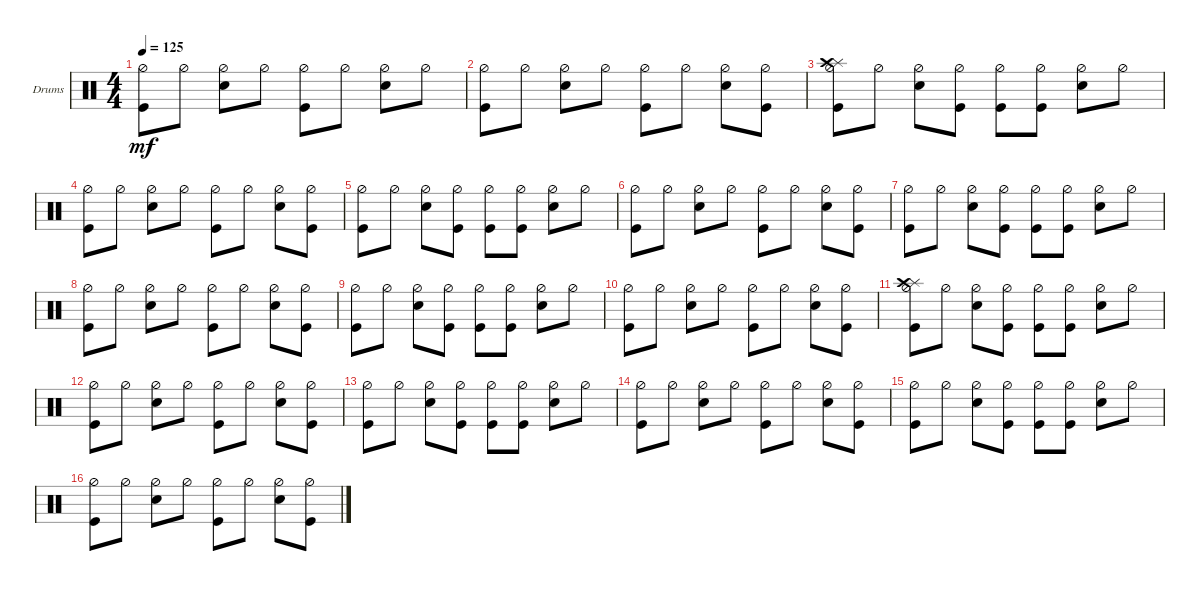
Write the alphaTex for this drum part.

\defaultSystemsLayout 4
\bracketExtendMode groupsimilarinstruments
\firstSystemTrackNameOrientation horizontal
\otherSystemsTrackNameOrientation horizontal
\track ("Drumkit" "Drums") {instrument percussion}
\staff {score}
\articulation defaults
\ts (4 4)
\tempo 125
\clef neutral
\ks c
("Kick (hit)" "Hi-Hat (half)").8{dy mf} "Hi-Hat (half)".8 ("Hi-Hat (half)" "Snare (hit) 2").8 "Hi-Hat (half)".8 ("Kick (hit)" "Hi-Hat (half)").8 "Hi-Hat (half)".8 ("Hi-Hat (half)" "Snare (hit) 2").8 "Hi-Hat (half)".8 |
("Kick (hit)" "Hi-Hat (half)").8 "Hi-Hat (half)".8 ("Hi-Hat (half)" "Snare (hit) 2").8 "Hi-Hat (half)".8 ("Kick (hit)" "Hi-Hat (half)").8 "Hi-Hat (half)".8 ("Hi-Hat (half)" "Snare (hit) 2").8 ("Hi-Hat (half)" "Kick (hit)").8 |
("Kick (hit)" "Hi-Hat (half)" "Splash (hit)" "Crash high (hit)").8 "Hi-Hat (half)".8 ("Hi-Hat (half)" "Snare (hit) 2").8 ("Hi-Hat (half)" "Kick (hit)").8 ("Kick (hit)" "Hi-Hat (half)").8 ("Hi-Hat (half)" "Kick (hit)").8 ("Hi-Hat (half)" "Snare (hit) 2").8 "Hi-Hat (half)".8 |
("Kick (hit)" "Hi-Hat (half)").8 "Hi-Hat (half)".8 ("Hi-Hat (half)" "Snare (hit) 2").8 "Hi-Hat (half)".8 ("Kick (hit)" "Hi-Hat (half)").8 "Hi-Hat (half)".8 ("Hi-Hat (half)" "Snare (hit) 2").8 ("Hi-Hat (half)" "Kick (hit)").8 |
("Kick (hit)" "Hi-Hat (half)").8 "Hi-Hat (half)".8 ("Hi-Hat (half)" "Snare (hit) 2").8 ("Hi-Hat (half)" "Kick (hit)").8 ("Kick (hit)" "Hi-Hat (half)").8 ("Hi-Hat (half)" "Kick (hit)").8 ("Hi-Hat (half)" "Snare (hit) 2").8 "Hi-Hat (half)".8 |
("Kick (hit)" "Hi-Hat (half)").8 "Hi-Hat (half)".8 ("Hi-Hat (half)" "Snare (hit) 2").8 "Hi-Hat (half)".8 ("Kick (hit)" "Hi-Hat (half)").8 "Hi-Hat (half)".8 ("Hi-Hat (half)" "Snare (hit) 2").8 ("Hi-Hat (half)" "Kick (hit)").8 |
("Kick (hit)" "Hi-Hat (half)").8 "Hi-Hat (half)".8 ("Hi-Hat (half)" "Snare (hit) 2").8 ("Hi-Hat (half)" "Kick (hit)").8 ("Kick (hit)" "Hi-Hat (half)").8 ("Hi-Hat (half)" "Kick (hit)").8 ("Hi-Hat (half)" "Snare (hit) 2").8 "Hi-Hat (half)".8 |
("Kick (hit)" "Hi-Hat (half)").8 "Hi-Hat (half)".8 ("Hi-Hat (half)" "Snare (hit) 2").8 "Hi-Hat (half)".8 ("Kick (hit)" "Hi-Hat (half)").8 "Hi-Hat (half)".8 ("Hi-Hat (half)" "Snare (hit) 2").8 ("Hi-Hat (half)" "Kick (hit)").8 |
("Kick (hit)" "Hi-Hat (half)").8 "Hi-Hat (half)".8 ("Hi-Hat (half)" "Snare (hit) 2").8 ("Hi-Hat (half)" "Kick (hit)").8 ("Kick (hit)" "Hi-Hat (half)").8 ("Hi-Hat (half)" "Kick (hit)").8 ("Hi-Hat (half)" "Snare (hit) 2").8 "Hi-Hat (half)".8 |
("Kick (hit)" "Hi-Hat (half)").8 "Hi-Hat (half)".8 ("Hi-Hat (half)" "Snare (hit) 2").8 "Hi-Hat (half)".8 ("Kick (hit)" "Hi-Hat (half)").8 "Hi-Hat (half)".8 ("Hi-Hat (half)" "Snare (hit) 2").8 ("Hi-Hat (half)" "Kick (hit)").8 |
("Kick (hit)" "Hi-Hat (half)" "Splash (hit)" "Crash high (hit)").8 "Hi-Hat (half)".8 ("Hi-Hat (half)" "Snare (hit) 2").8 ("Hi-Hat (half)" "Kick (hit)").8 ("Kick (hit)" "Hi-Hat (half)").8 ("Hi-Hat (half)" "Kick (hit)").8 ("Hi-Hat (half)" "Snare (hit) 2").8 "Hi-Hat (half)".8 |
("Kick (hit)" "Hi-Hat (half)").8 "Hi-Hat (half)".8 ("Hi-Hat (half)" "Snare (hit) 2").8 "Hi-Hat (half)".8 ("Kick (hit)" "Hi-Hat (half)").8 "Hi-Hat (half)".8 ("Hi-Hat (half)" "Snare (hit) 2").8 ("Hi-Hat (half)" "Kick (hit)").8 |
("Kick (hit)" "Hi-Hat (half)").8 "Hi-Hat (half)".8 ("Hi-Hat (half)" "Snare (hit) 2").8 ("Hi-Hat (half)" "Kick (hit)").8 ("Kick (hit)" "Hi-Hat (half)").8 ("Hi-Hat (half)" "Kick (hit)").8 ("Hi-Hat (half)" "Snare (hit) 2").8 "Hi-Hat (half)".8 |
("Kick (hit)" "Hi-Hat (half)").8 "Hi-Hat (half)".8 ("Hi-Hat (half)" "Snare (hit) 2").8 "Hi-Hat (half)".8 ("Kick (hit)" "Hi-Hat (half)").8 "Hi-Hat (half)".8 ("Hi-Hat (half)" "Snare (hit) 2").8 ("Hi-Hat (half)" "Kick (hit)").8 |
("Kick (hit)" "Hi-Hat (half)").8 "Hi-Hat (half)".8 ("Hi-Hat (half)" "Snare (hit) 2").8 ("Hi-Hat (half)" "Kick (hit)").8 ("Kick (hit)" "Hi-Hat (half)").8 ("Hi-Hat (half)" "Kick (hit)").8 ("Hi-Hat (half)" "Snare (hit) 2").8 "Hi-Hat (half)".8 |
("Kick (hit)" "Hi-Hat (half)").8 "Hi-Hat (half)".8 ("Hi-Hat (half)" "Snare (hit) 2").8 "Hi-Hat (half)".8 ("Kick (hit)" "Hi-Hat (half)").8 "Hi-Hat (half)".8 ("Hi-Hat (half)" "Snare (hit) 2").8 ("Hi-Hat (half)" "Kick (hit)").8
